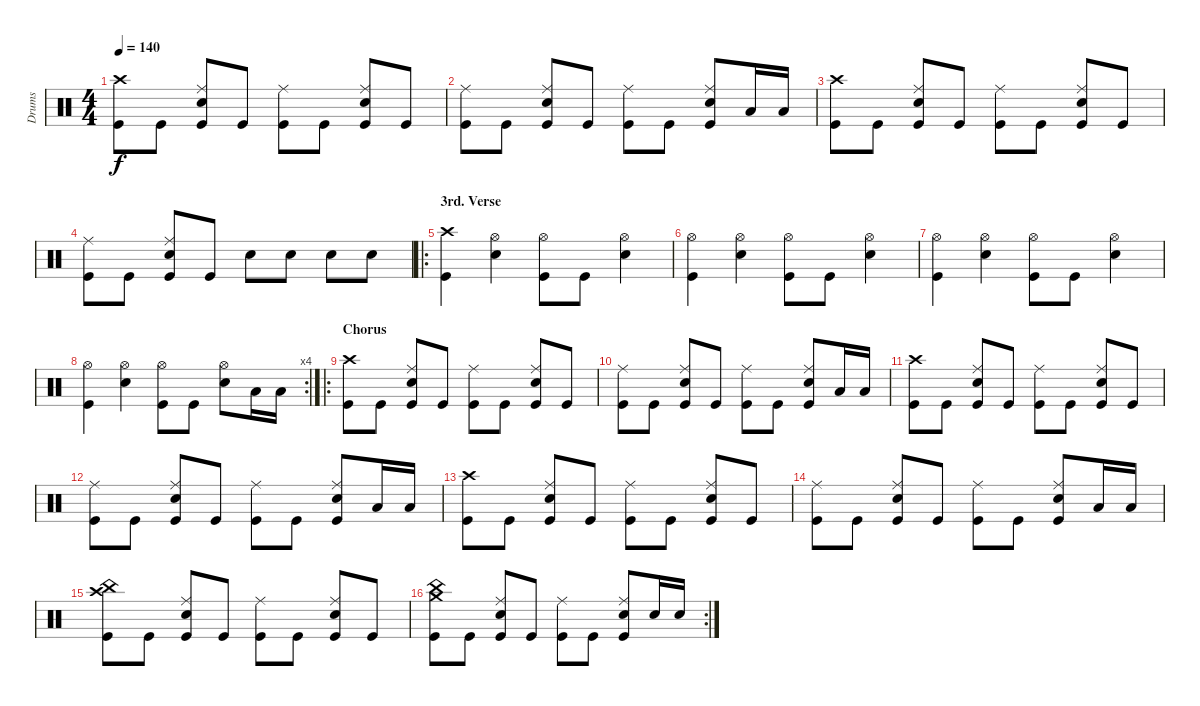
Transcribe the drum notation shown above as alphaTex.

\track ("Drums" "Drums") {instrument percussion}
\staff {score}
\articulation defaults
\ts (4 4)
\tempo 140
\clef neutral
\ks c
("Crash high (hit)" "Kick (hit)").8{dy f} "Kick (hit)".8 ("Ride (middle)" "Snare (hit) 2" "Kick (hit)").8 "Kick (hit)".8 ("Ride (middle)" "Kick (hit)").8 "Kick (hit)".8 ("Ride (middle)" "Snare (hit) 2" "Kick (hit)").8 "Kick (hit)".8 |
("Ride (middle)" "Kick (hit)").8 "Kick (hit)".8 ("Ride (middle)" "Snare (hit) 2" "Kick (hit)").8 "Kick (hit)".8 ("Ride (middle)" "Kick (hit)").8 "Kick (hit)".8 ("Ride (middle)" "Snare (hit) 2" "Kick (hit)").8 "Low Tom (hit)".16 "Low Tom (hit)".16 |
("Crash high (hit)" "Kick (hit)").8 "Kick (hit)".8 ("Ride (middle)" "Snare (hit) 2" "Kick (hit)").8 "Kick (hit)".8 ("Ride (middle)" "Kick (hit)").8 "Kick (hit)".8 ("Ride (middle)" "Snare (hit) 2" "Kick (hit)").8 "Kick (hit)".8 |
("Ride (middle)" "Kick (hit)").8 "Kick (hit)".8 ("Ride (middle)" "Snare (hit) 2" "Kick (hit)").8 "Kick (hit)".8 "Snare (hit) 2".8 "Snare (hit) 2".8 "Snare (hit) 2".8 "Snare (hit) 2".8 |
\ro
\section ("" "3rd. Verse")
("Crash high (hit)" "Kick (hit)").4 ("Hi-Hat (open)" "Snare (hit) 2").4 ("Hi-Hat (open)" "Kick (hit)").8 "Kick (hit)".8 ("Hi-Hat (open)" "Snare (hit) 2").4 |
("Hi-Hat (open)" "Kick (hit)").4 ("Hi-Hat (open)" "Snare (hit) 2").4 ("Hi-Hat (open)" "Kick (hit)").8 "Kick (hit)".8 ("Hi-Hat (open)" "Snare (hit) 2").4 |
("Hi-Hat (open)" "Kick (hit)").4 ("Hi-Hat (open)" "Snare (hit) 2").4 ("Hi-Hat (open)" "Kick (hit)").8 "Kick (hit)".8 ("Hi-Hat (open)" "Snare (hit) 2").4 |
\rc 4
("Hi-Hat (open)" "Kick (hit)").4 ("Hi-Hat (open)" "Snare (hit) 2").4 ("Hi-Hat (open)" "Kick (hit)").8 "Kick (hit)".8 ("Hi-Hat (open)" "Snare (hit) 2").8 "Low Tom (hit)".16 "Low Tom (hit)".16 |
\ro
\section ("" "Chorus")
("Crash high (hit)" "Kick (hit)").8 "Kick (hit)".8 ("Ride (middle)" "Snare (hit) 2" "Kick (hit)").8 "Kick (hit)".8 ("Ride (middle)" "Kick (hit)").8 "Kick (hit)".8 ("Ride (middle)" "Snare (hit) 2" "Kick (hit)").8 "Kick (hit)".8 |
("Ride (middle)" "Kick (hit)").8 "Kick (hit)".8 ("Ride (middle)" "Snare (hit) 2" "Kick (hit)").8 "Kick (hit)".8 ("Ride (middle)" "Kick (hit)").8 "Kick (hit)".8 ("Ride (middle)" "Snare (hit) 2" "Kick (hit)").8 "Low Tom (hit)".16 "Low Tom (hit)".16 |
("Crash high (hit)" "Kick (hit)").8 "Kick (hit)".8 ("Ride (middle)" "Snare (hit) 2" "Kick (hit)").8 "Kick (hit)".8 ("Ride (middle)" "Kick (hit)").8 "Kick (hit)".8 ("Ride (middle)" "Snare (hit) 2" "Kick (hit)").8 "Kick (hit)".8 |
("Ride (middle)" "Kick (hit)").8 "Kick (hit)".8 ("Ride (middle)" "Snare (hit) 2" "Kick (hit)").8 "Kick (hit)".8 ("Ride (middle)" "Kick (hit)").8 "Kick (hit)".8 ("Ride (middle)" "Snare (hit) 2" "Kick (hit)").8 "Low Tom (hit)".16 "Low Tom (hit)".16 |
("Crash high (hit)" "Kick (hit)").8 "Kick (hit)".8 ("Ride (middle)" "Snare (hit) 2" "Kick (hit)").8 "Kick (hit)".8 ("Ride (middle)" "Kick (hit)").8 "Kick (hit)".8 ("Ride (middle)" "Snare (hit) 2" "Kick (hit)").8 "Kick (hit)".8 |
("Ride (middle)" "Kick (hit)").8 "Kick (hit)".8 ("Ride (middle)" "Snare (hit) 2" "Kick (hit)").8 "Kick (hit)".8 ("Ride (middle)" "Kick (hit)").8 "Kick (hit)".8 ("Ride (middle)" "Snare (hit) 2" "Kick (hit)").8 "Low Tom (hit)".16 "Low Tom (hit)".16 |
("Crash high (hit)" "China (hit)" "Kick (hit)").8 "Kick (hit)".8 ("Ride (middle)" "Snare (hit) 2" "Kick (hit)").8 "Kick (hit)".8 ("Ride (middle)" "Kick (hit)").8 "Kick (hit)".8 ("Ride (middle)" "Snare (hit) 2" "Kick (hit)").8 "Kick (hit)".8 |
\rc 2
("China (hit)" "Crash medium (hit)" "Kick (hit)").8 "Kick (hit)".8 ("Ride (middle)" "Snare (hit) 2" "Kick (hit)").8 "Kick (hit)".8 ("Ride (middle)" "Kick (hit)").8 "Kick (hit)".8 ("Ride (middle)" "Snare (hit) 2" "Kick (hit)").8 "Snare (hit) 2".16 "Snare (hit) 2".16
